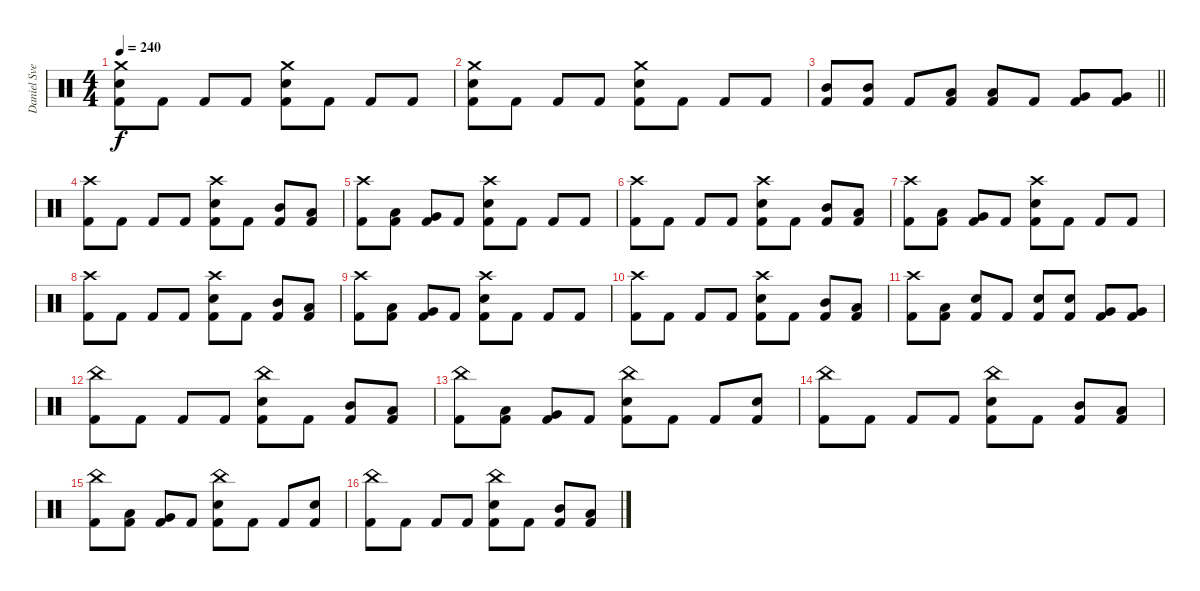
\track ("Daniel Svensson" "Daniel Sve") {instrument percussion}
\staff {score}
\articulation defaults
\ts (4 4)
\tempo 240
\clef neutral
\ks c
("Crash medium (hit)" "Electric Snare (hit)" "Kick (hit) 2").8{dy f} "Kick (hit) 2".8 "Kick (hit) 2".8 "Kick (hit) 2".8 ("Crash medium (hit)" "Electric Snare (hit)" "Kick (hit) 2").8 "Kick (hit) 2".8 "Kick (hit) 2".8 "Kick (hit) 2".8 |
("Crash medium (hit)" "Electric Snare (hit)" "Kick (hit) 2").8 "Kick (hit) 2".8 "Kick (hit) 2".8 "Kick (hit) 2".8 ("Crash medium (hit)" "Electric Snare (hit)" "Kick (hit) 2").8 "Kick (hit) 2".8 "Kick (hit) 2".8 "Kick (hit) 2".8 |
\barLineRight lightlight
("Mid Tom (hit)" "Kick (hit) 2").8 ("Mid Tom (hit)" "Kick (hit) 2").8 "Kick (hit) 2".8 ("Low Tom (hit)" "Kick (hit) 2").8 ("Low Tom (hit)" "Kick (hit) 2").8 "Kick (hit) 2".8 ("Very Low Tom (hit)" "Kick (hit) 2").8 ("Very Low Tom (hit)" "Kick (hit) 2").8 |
\section ("" "")
("Crash high (hit)" "Kick (hit) 2").8 "Kick (hit) 2".8 "Kick (hit) 2".8 "Kick (hit) 2".8 ("Crash high (hit)" "Electric Snare (hit)" "Kick (hit) 2").8 "Kick (hit) 2".8 ("Mid Tom (hit)" "Kick (hit) 2").8 ("Low Tom (hit)" "Kick (hit) 2").8 |
("Crash high (hit)" "Kick (hit) 2").8 ("Low Tom (hit)" "Kick (hit) 2").8 ("Very Low Tom (hit)" "Kick (hit) 2").8 "Kick (hit) 2".8 ("Crash high (hit)" "Electric Snare (hit)" "Kick (hit) 2").8 "Kick (hit) 2".8 "Kick (hit) 2".8 "Kick (hit) 2".8 |
("Crash high (hit)" "Kick (hit) 2").8 "Kick (hit) 2".8 "Kick (hit) 2".8 "Kick (hit) 2".8 ("Crash high (hit)" "Electric Snare (hit)" "Kick (hit) 2").8 "Kick (hit) 2".8 ("Mid Tom (hit)" "Kick (hit) 2").8 ("Low Tom (hit)" "Kick (hit) 2").8 |
("Crash high (hit)" "Kick (hit) 2").8 ("Low Tom (hit)" "Kick (hit) 2").8 ("Very Low Tom (hit)" "Kick (hit) 2").8 "Kick (hit) 2".8 ("Crash high (hit)" "Electric Snare (hit)" "Kick (hit) 2").8 "Kick (hit) 2".8 "Kick (hit) 2".8 "Kick (hit) 2".8 |
("Crash high (hit)" "Kick (hit) 2").8 "Kick (hit) 2".8 "Kick (hit) 2".8 "Kick (hit) 2".8 ("Crash high (hit)" "Electric Snare (hit)" "Kick (hit) 2").8 "Kick (hit) 2".8 ("Mid Tom (hit)" "Kick (hit) 2").8 ("Low Tom (hit)" "Kick (hit) 2").8 |
("Crash high (hit)" "Kick (hit) 2").8 ("Low Tom (hit)" "Kick (hit) 2").8 ("Very Low Tom (hit)" "Kick (hit) 2").8 "Kick (hit) 2".8 ("Crash high (hit)" "Electric Snare (hit)" "Kick (hit) 2").8 "Kick (hit) 2".8 "Kick (hit) 2".8 "Kick (hit) 2".8 |
("Crash high (hit)" "Kick (hit) 2").8 "Kick (hit) 2".8 "Kick (hit) 2".8 "Kick (hit) 2".8 ("Crash high (hit)" "Electric Snare (hit)" "Kick (hit) 2").8 "Kick (hit) 2".8 ("Mid Tom (hit)" "Kick (hit) 2").8 ("Low Tom (hit)" "Kick (hit) 2").8 |
("Crash high (hit)" "Kick (hit) 2").8 ("Low Tom (hit)" "Kick (hit) 2").8 ("Electric Snare (hit)" "Kick (hit) 2").8 "Kick (hit) 2".8 ("Electric Snare (hit)" "Kick (hit) 2").8 ("Electric Snare (hit)" "Kick (hit) 2").8 ("Very Low Tom (hit)" "Kick (hit) 2").8 ("Very Low Tom (hit)" "Kick (hit) 2").8 |
("China (hit)" "Kick (hit) 2").8 "Kick (hit) 2".8 "Kick (hit) 2".8 "Kick (hit) 2".8 ("China (hit)" "Electric Snare (hit)" "Kick (hit) 2").8 "Kick (hit) 2".8 ("Mid Tom (hit)" "Kick (hit) 2").8 ("Low Tom (hit)" "Kick (hit) 2").8 |
("China (hit)" "Kick (hit) 2").8 ("Low Tom (hit)" "Kick (hit) 2").8 ("Very Low Tom (hit)" "Kick (hit) 2").8 "Kick (hit) 2".8 ("China (hit)" "Electric Snare (hit)" "Kick (hit) 2").8 "Kick (hit) 2".8 "Kick (hit) 2".8 ("Electric Snare (hit)" "Kick (hit) 2").8 |
("China (hit)" "Kick (hit) 2").8 "Kick (hit) 2".8 "Kick (hit) 2".8 "Kick (hit) 2".8 ("China (hit)" "Electric Snare (hit)" "Kick (hit) 2").8 "Kick (hit) 2".8 ("Mid Tom (hit)" "Kick (hit) 2").8 ("Low Tom (hit)" "Kick (hit) 2").8 |
("China (hit)" "Kick (hit) 2").8 ("Low Tom (hit)" "Kick (hit) 2").8 ("Very Low Tom (hit)" "Kick (hit) 2").8 "Kick (hit) 2".8 ("China (hit)" "Electric Snare (hit)" "Kick (hit) 2").8 "Kick (hit) 2".8 "Kick (hit) 2".8 ("Electric Snare (hit)" "Kick (hit) 2").8 |
("China (hit)" "Kick (hit) 2").8 "Kick (hit) 2".8 "Kick (hit) 2".8 "Kick (hit) 2".8 ("China (hit)" "Electric Snare (hit)" "Kick (hit) 2").8 "Kick (hit) 2".8 ("Mid Tom (hit)" "Kick (hit) 2").8 ("Low Tom (hit)" "Kick (hit) 2").8
